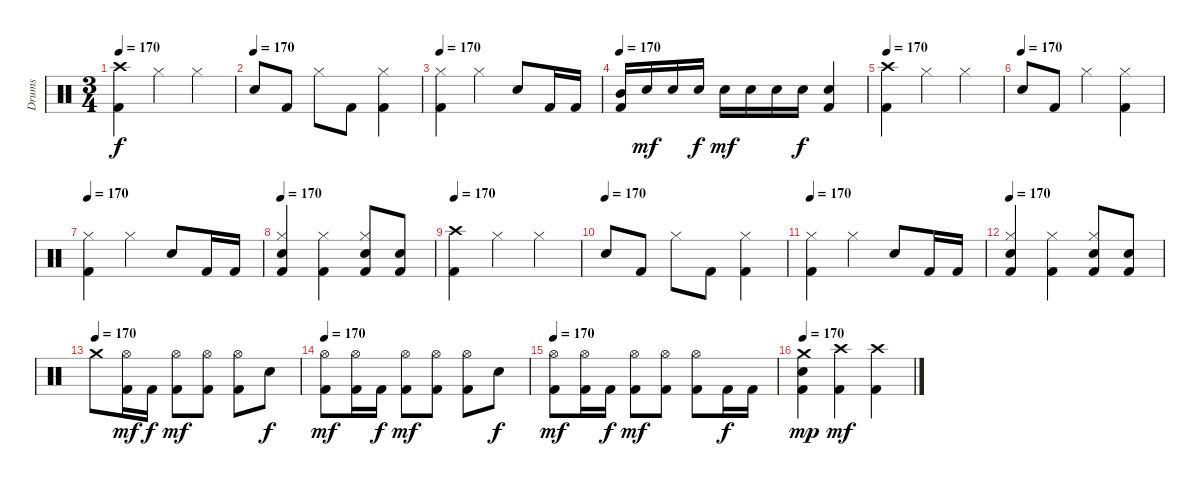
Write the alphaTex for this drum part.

\track ("Drums" "Drums") {instrument percussion}
\staff {score}
\articulation defaults
\ts (3 4)
\tempo 170
\clef neutral
\ks c
("Crash high (hit)" "Kick (hit) 2").4{dy f} "Hi-Hat (closed)".4 "Hi-Hat (closed)".4 |
\tempo (170)
"Electric Snare (hit)".8 "Kick (hit) 2".8 "Hi-Hat (closed)".8 "Kick (hit) 2".8 ("Hi-Hat (closed)" "Kick (hit) 2").4 |
\tempo 170
("Hi-Hat (closed)" "Kick (hit) 2").4 "Hi-Hat (closed)".4 "Electric Snare (hit)".8 "Kick (hit) 2".16 "Kick (hit) 2".16 |
\tempo 170
("Mid Tom (hit)" "Kick (hit) 2").16 "Electric Snare (hit)".16{dy mf} "Electric Snare (hit)".16 "Electric Snare (hit)".16{dy f} "Electric Snare (hit)".16{dy mf} "Electric Snare (hit)".16 "Electric Snare (hit)".16 "Electric Snare (hit)".16{dy f} ("Electric Snare (hit)" "Kick (hit) 2").4 |
\tempo 170
("Crash high (hit)" "Kick (hit) 2").4 "Hi-Hat (closed)".4 "Hi-Hat (closed)".4 |
\tempo (170)
"Electric Snare (hit)".8 "Kick (hit) 2".8 "Hi-Hat (closed)".4 ("Hi-Hat (closed)" "Kick (hit) 2").4 |
\tempo 170
("Hi-Hat (closed)" "Kick (hit) 2").4 "Hi-Hat (closed)".4 "Electric Snare (hit)".8 "Kick (hit) 2".16 "Kick (hit) 2".16 |
\tempo 170
("Hi-Hat (closed)" "Electric Snare (hit)" "Kick (hit) 2").4 ("Hi-Hat (closed)" "Kick (hit) 2").4 ("Hi-Hat (closed)" "Electric Snare (hit)" "Kick (hit) 2").8 ("Electric Snare (hit)" "Kick (hit) 2").8 |
\tempo 170
("Crash high (hit)" "Kick (hit) 2").4 "Hi-Hat (closed)".4 "Hi-Hat (closed)".4 |
\tempo (170)
"Electric Snare (hit)".8 "Kick (hit) 2".8 "Hi-Hat (closed)".8 "Kick (hit) 2".8 ("Hi-Hat (closed)" "Kick (hit) 2").4 |
\tempo 170
("Hi-Hat (closed)" "Kick (hit) 2").4 "Hi-Hat (closed)".4 "Electric Snare (hit)".8 "Kick (hit) 2".16 "Kick (hit) 2".16 |
\tempo 170
("Hi-Hat (closed)" "Electric Snare (hit)" "Kick (hit) 2").4 ("Hi-Hat (closed)" "Kick (hit) 2").4 ("Hi-Hat (closed)" "Electric Snare (hit)" "Kick (hit) 2").8 ("Electric Snare (hit)" "Kick (hit) 2").8 |
\tempo (170)
"Crash medium (hit)".8 ("Hi-Hat (open)" "Kick (hit) 2").16{dy mf} "Kick (hit) 2".16{dy f} ("Hi-Hat (open)" "Kick (hit) 2").8{dy mf} ("Hi-Hat (open)" "Kick (hit) 2").8 ("Hi-Hat (open)" "Kick (hit) 2").8 "Electric Snare (hit)".8{dy f} |
\tempo 170
("Hi-Hat (open)" "Kick (hit) 2").8{dy mf} ("Hi-Hat (open)" "Kick (hit) 2").16 "Kick (hit) 2".16{dy f} ("Hi-Hat (open)" "Kick (hit) 2").8{dy mf} ("Hi-Hat (open)" "Kick (hit) 2").8 ("Hi-Hat (open)" "Kick (hit) 2").8 "Electric Snare (hit)".8{dy f} |
\tempo 170
("Hi-Hat (open)" "Kick (hit) 2").8{dy mf} ("Hi-Hat (open)" "Kick (hit) 2").16 "Kick (hit) 2".16{dy f} ("Hi-Hat (open)" "Kick (hit) 2").8{dy mf} ("Hi-Hat (open)" "Kick (hit) 2").8 ("Hi-Hat (open)" "Kick (hit) 2").8 "Kick (hit) 2".16{dy f} "Kick (hit) 2".16 |
\tempo 170
("Crash medium (hit)" "Electric Snare (hit)" "Kick (hit) 2").4{dy mp} ("Crash high (hit)" "Kick (hit) 2").4{dy mf} ("Crash high (hit)" "Kick (hit) 2").4
